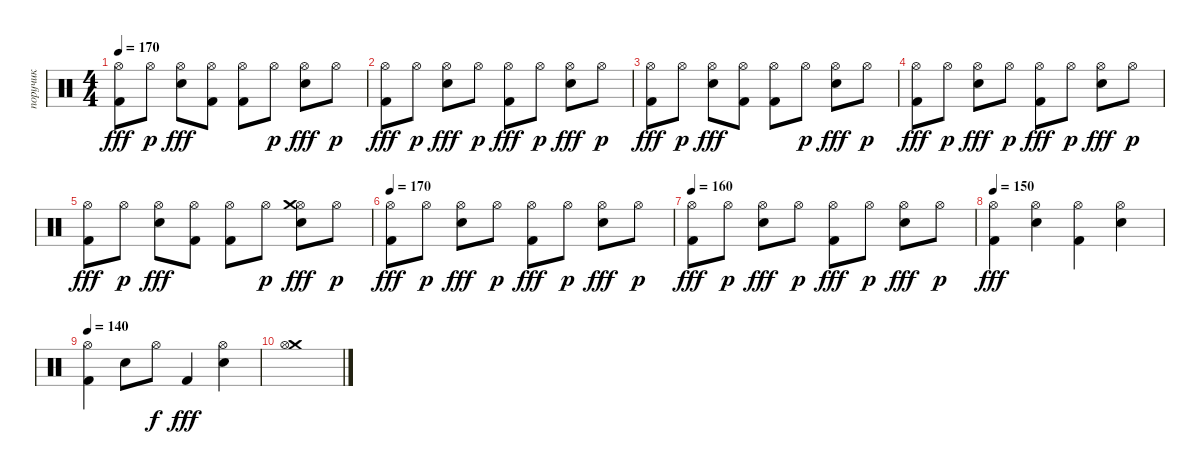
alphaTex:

\track ("поручик" "поручик") {instrument percussion}
\staff {score}
\articulation defaults
\ts (4 4)
\tempo 170
\clef neutral
\ks c
("Hi-Hat (open)" "Kick (hit) 2").8{dy fff} "Hi-Hat (open)".8{dy p} ("Hi-Hat (open)" "Electric Snare (hit)").8{dy fff} ("Hi-Hat (open)" "Kick (hit) 2").8 ("Hi-Hat (open)" "Kick (hit) 2").8 "Hi-Hat (open)".8{dy p} ("Hi-Hat (open)" "Electric Snare (hit)").8{dy fff} "Hi-Hat (open)".8{dy p} |
("Hi-Hat (open)" "Kick (hit) 2").8{dy fff} "Hi-Hat (open)".8{dy p} ("Hi-Hat (open)" "Electric Snare (hit)").8{dy fff} "Hi-Hat (open)".8{dy p} ("Hi-Hat (open)" "Kick (hit) 2").8{dy fff} "Hi-Hat (open)".8{dy p} ("Hi-Hat (open)" "Electric Snare (hit)").8{dy fff} "Hi-Hat (open)".8{dy p} |
("Hi-Hat (open)" "Kick (hit) 2").8{dy fff} "Hi-Hat (open)".8{dy p} ("Hi-Hat (open)" "Electric Snare (hit)").8{dy fff} ("Hi-Hat (open)" "Kick (hit) 2").8 ("Hi-Hat (open)" "Kick (hit) 2").8 "Hi-Hat (open)".8{dy p} ("Hi-Hat (open)" "Electric Snare (hit)").8{dy fff} "Hi-Hat (open)".8{dy p} |
("Hi-Hat (open)" "Kick (hit) 2").8{dy fff} "Hi-Hat (open)".8{dy p} ("Hi-Hat (open)" "Electric Snare (hit)").8{dy fff} "Hi-Hat (open)".8{dy p} ("Hi-Hat (open)" "Kick (hit) 2").8{dy fff} "Hi-Hat (open)".8{dy p} ("Hi-Hat (open)" "Electric Snare (hit)").8{dy fff} "Hi-Hat (open)".8{dy p} |
("Hi-Hat (open)" "Kick (hit) 2").8{dy fff} "Hi-Hat (open)".8{dy p} ("Hi-Hat (open)" "Electric Snare (hit)").8{dy fff} ("Hi-Hat (open)" "Kick (hit) 2").8 ("Hi-Hat (open)" "Kick (hit) 2").8 "Hi-Hat (open)".8{dy p} ("Hi-Hat (open)" "Crash medium (hit)" "Electric Snare (hit)").8{dy fff} "Hi-Hat (open)".8{dy p} |
\tempo 170
("Hi-Hat (open)" "Kick (hit) 2").8{dy fff} "Hi-Hat (open)".8{dy p} ("Hi-Hat (open)" "Electric Snare (hit)").8{dy fff} "Hi-Hat (open)".8{dy p} ("Hi-Hat (open)" "Kick (hit) 2").8{dy fff} "Hi-Hat (open)".8{dy p} ("Hi-Hat (open)" "Electric Snare (hit)").8{dy fff} "Hi-Hat (open)".8{dy p} |
\tempo 160
("Hi-Hat (open)" "Kick (hit) 2").8{dy fff} "Hi-Hat (open)".8{dy p} ("Hi-Hat (open)" "Electric Snare (hit)").8{dy fff} "Hi-Hat (open)".8{dy p} ("Hi-Hat (open)" "Kick (hit) 2").8{dy fff} "Hi-Hat (open)".8{dy p} ("Hi-Hat (open)" "Electric Snare (hit)").8{dy fff} "Hi-Hat (open)".8{dy p} |
\tempo 150
("Hi-Hat (open)" "Kick (hit) 2").4{dy fff} ("Hi-Hat (open)" "Electric Snare (hit)").4 ("Hi-Hat (open)" "Kick (hit) 2").4 ("Hi-Hat (open)" "Electric Snare (hit)").4 |
\tempo 140
("Hi-Hat (open)" "Kick (hit) 2").4 "Electric Snare (hit)".8 "Hi-Hat (open)".8{dy f} "Kick (hit) 2".4{dy fff} ("Hi-Hat (open)" "Electric Snare (hit)").4 |
("Crash medium (hit)" "Hi-Hat (open)").1
